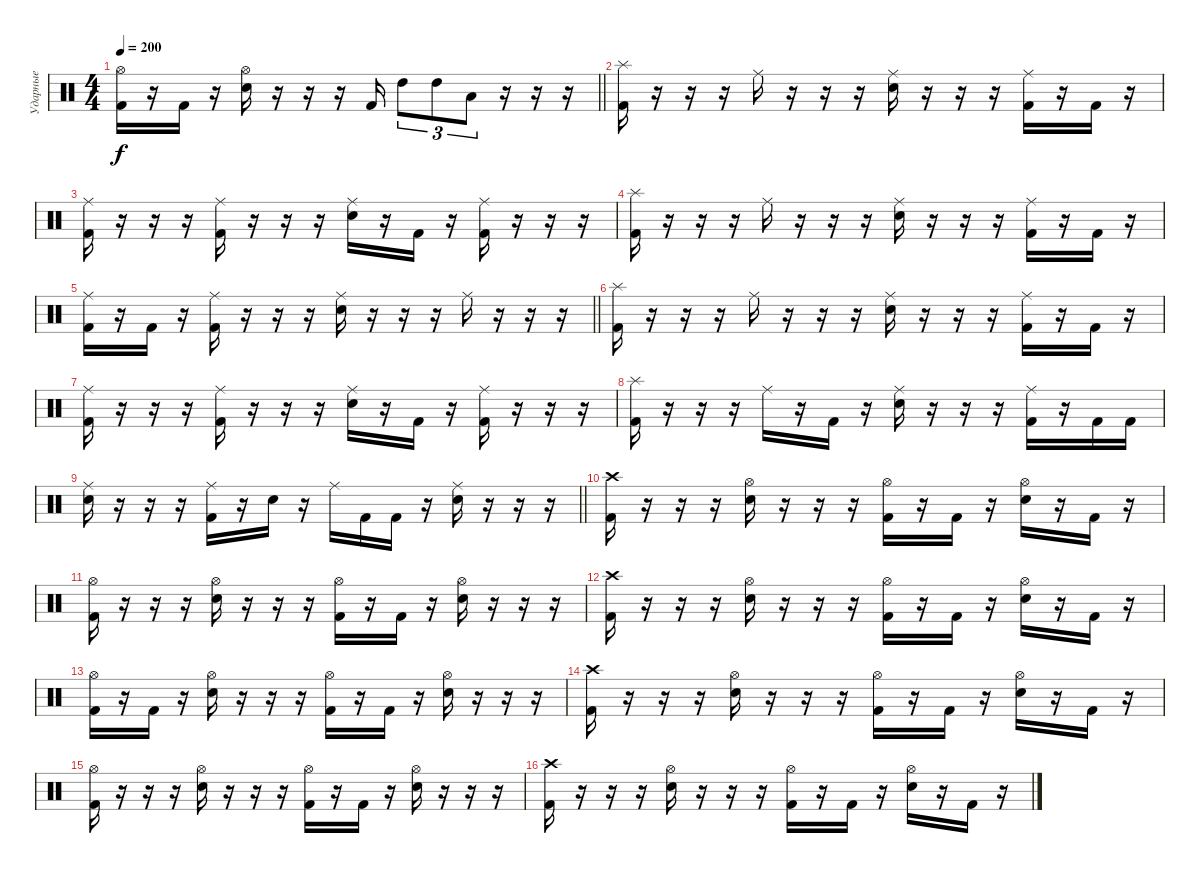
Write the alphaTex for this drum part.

\track ("Ударные" "Ударные") {instrument percussion}
\staff {score}
\articulation defaults
\ts (4 4)
\tempo 200
\clef neutral
\barLineRight lightlight
\ks c
("Hi-Hat (open)" "Kick (hit) 2").16{dy f} r.16 "Kick (hit) 2".16 r.16 ("Hi-Hat (open)" "Electric Snare (hit)").16 r.16 r.16 r.16 "Kick (hit) 2".16 "High Tom (hit)".8{tu (3 2)} "High Tom (hit)".8{tu (3 2)} "Low Tom (hit)".8{tu (3 2)} r.16 r.16 r.16 |
\section ("" "")
("Splash (hit)" "Kick (hit) 2").16 r.16 r.16 r.16 "Ride (middle)".16 r.16 r.16 r.16 ("Ride (middle)" "Electric Snare (hit)").16 r.16 r.16 r.16 ("Ride (middle)" "Kick (hit) 2").16 r.16 "Kick (hit) 2".16 r.16 |
("Ride (middle)" "Kick (hit) 2").16 r.16 r.16 r.16 ("Ride (middle)" "Kick (hit) 2").16 r.16 r.16 r.16 ("Ride (middle)" "Electric Snare (hit)").16 r.16 "Kick (hit) 2".16 r.16 ("Ride (middle)" "Kick (hit) 2").16 r.16 r.16 r.16 |
("Splash (hit)" "Kick (hit) 2").16 r.16 r.16 r.16 "Ride (middle)".16 r.16 r.16 r.16 ("Ride (middle)" "Electric Snare (hit)").16 r.16 r.16 r.16 ("Ride (middle)" "Kick (hit) 2").16 r.16 "Kick (hit) 2".16 r.16 |
\barLineRight lightlight
("Ride (middle)" "Kick (hit) 2").16 r.16 "Kick (hit) 2".16 r.16 ("Ride (middle)" "Kick (hit) 2").16 r.16 r.16 r.16 ("Ride (middle)" "Electric Snare (hit)").16 r.16 r.16 r.16 "Ride (middle)".16 r.16 r.16 r.16 |
("Splash (hit)" "Kick (hit) 2").16 r.16 r.16 r.16 "Ride (middle)".16 r.16 r.16 r.16 ("Ride (middle)" "Electric Snare (hit)").16 r.16 r.16 r.16 ("Ride (middle)" "Kick (hit) 2").16 r.16 "Kick (hit) 2".16 r.16 |
("Ride (middle)" "Kick (hit) 2").16 r.16 r.16 r.16 ("Ride (middle)" "Kick (hit) 2").16 r.16 r.16 r.16 ("Ride (middle)" "Electric Snare (hit)").16 r.16 "Kick (hit) 2".16 r.16 ("Ride (middle)" "Kick (hit) 2").16 r.16 r.16 r.16 |
("Splash (hit)" "Kick (hit) 2").16 r.16 r.16 r.16 "Ride (middle)".16 r.16 "Kick (hit) 2".16 r.16 ("Ride (middle)" "Electric Snare (hit)").16 r.16 r.16 r.16 ("Ride (middle)" "Kick (hit) 2").16 r.16 "Kick (hit) 2".16 "Kick (hit) 2".16 |
\barLineRight lightlight
("Ride (middle)" "Electric Snare (hit)").16 r.16 r.16 r.16 ("Ride (middle)" "Kick (hit) 2").16 r.16 "Electric Snare (hit)".16 r.16 "Ride (middle)".16 "Kick (hit) 2".16 "Kick (hit) 2".16 r.16 ("Ride (middle)" "Electric Snare (hit)").16 r.16 r.16 r.16 |
\section ("" "")
("Crash high (hit)" "Kick (hit) 2").16 r.16 r.16 r.16 ("Hi-Hat (open)" "Electric Snare (hit)").16 r.16 r.16 r.16 ("Hi-Hat (open)" "Kick (hit) 2").16 r.16 "Kick (hit) 2".16 r.16 ("Hi-Hat (open)" "Electric Snare (hit)").16 r.16 "Kick (hit) 2".16 r.16 |
("Hi-Hat (open)" "Kick (hit) 2").16 r.16 r.16 r.16 ("Hi-Hat (open)" "Electric Snare (hit)").16 r.16 r.16 r.16 ("Hi-Hat (open)" "Kick (hit) 2").16 r.16 "Kick (hit) 2".16 r.16 ("Hi-Hat (open)" "Electric Snare (hit)").16 r.16 r.16 r.16 |
("Crash high (hit)" "Kick (hit) 2").16 r.16 r.16 r.16 ("Hi-Hat (open)" "Electric Snare (hit)").16 r.16 r.16 r.16 ("Hi-Hat (open)" "Kick (hit) 2").16 r.16 "Kick (hit) 2".16 r.16 ("Hi-Hat (open)" "Electric Snare (hit)").16 r.16 "Kick (hit) 2".16 r.16 |
("Hi-Hat (open)" "Kick (hit) 2").16 r.16 "Kick (hit) 2".16 r.16 ("Hi-Hat (open)" "Electric Snare (hit)").16 r.16 r.16 r.16 ("Hi-Hat (open)" "Kick (hit) 2").16 r.16 "Kick (hit) 2".16 r.16 ("Hi-Hat (open)" "Electric Snare (hit)").16 r.16 r.16 r.16 |
("Crash high (hit)" "Kick (hit) 2").16 r.16 r.16 r.16 ("Hi-Hat (open)" "Electric Snare (hit)").16 r.16 r.16 r.16 ("Hi-Hat (open)" "Kick (hit) 2").16 r.16 "Kick (hit) 2".16 r.16 ("Hi-Hat (open)" "Electric Snare (hit)").16 r.16 "Kick (hit) 2".16 r.16 |
("Hi-Hat (open)" "Kick (hit) 2").16 r.16 r.16 r.16 ("Hi-Hat (open)" "Electric Snare (hit)").16 r.16 r.16 r.16 ("Hi-Hat (open)" "Kick (hit) 2").16 r.16 "Kick (hit) 2".16 r.16 ("Hi-Hat (open)" "Electric Snare (hit)").16 r.16 r.16 r.16 |
("Crash high (hit)" "Kick (hit) 2").16 r.16 r.16 r.16 ("Hi-Hat (open)" "Electric Snare (hit)").16 r.16 r.16 r.16 ("Hi-Hat (open)" "Kick (hit) 2").16 r.16 "Kick (hit) 2".16 r.16 ("Hi-Hat (open)" "Electric Snare (hit)").16 r.16 "Kick (hit) 2".16 r.16
